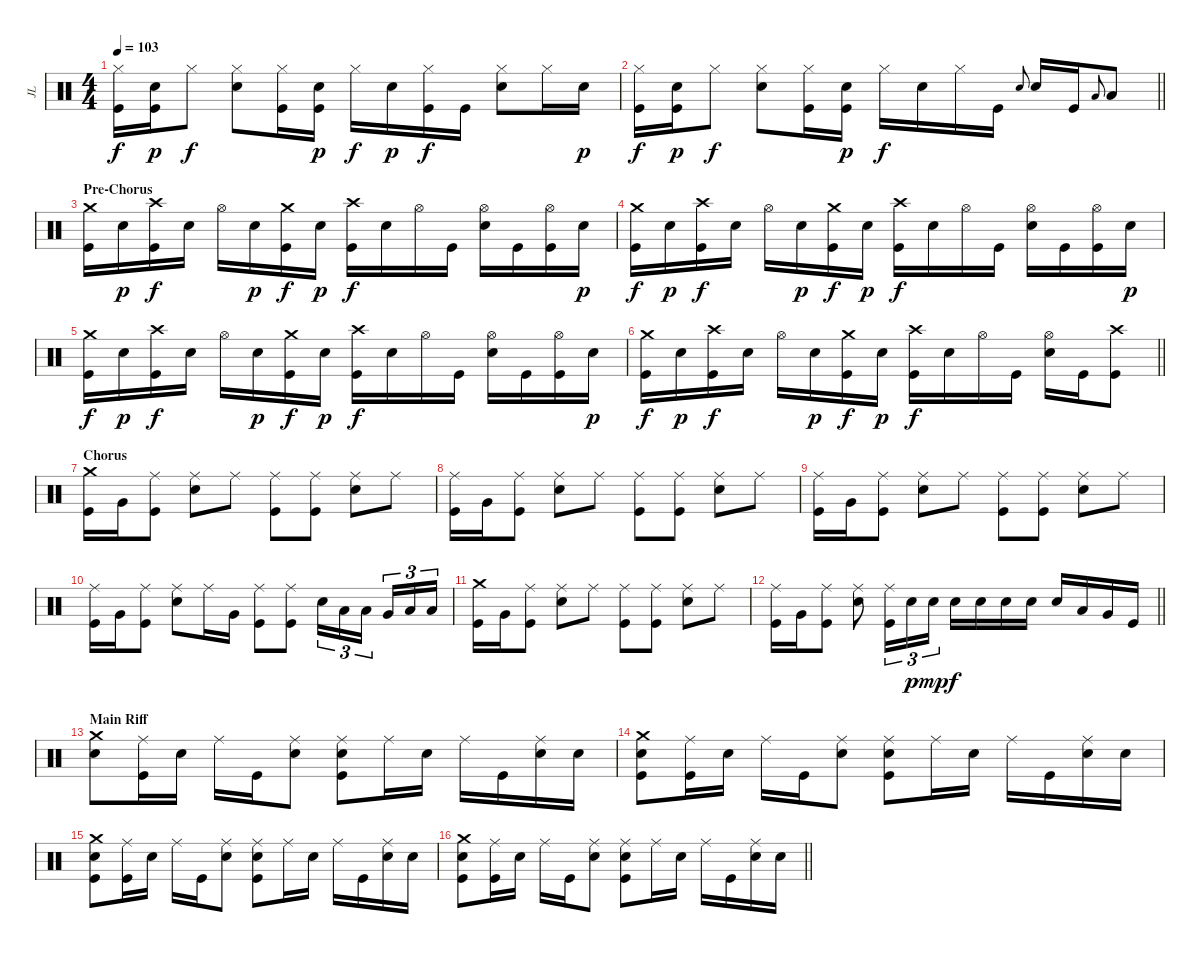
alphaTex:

\track ("JL" "JL") {instrument percussion}
\staff {score}
\articulation defaults
\ts (4 4)
\tempo 103
\clef neutral
\ks c
("Hi-Hat (closed)" "Kick (hit)").16{dy f} ("Electric Snare (hit)" "Kick (hit)").16{dy p} "Hi-Hat (closed)".8{dy f} ("Hi-Hat (closed)" "Electric Snare (hit)").8 ("Hi-Hat (closed)" "Kick (hit)").16 ("Electric Snare (hit)" "Kick (hit)").16{dy p} "Hi-Hat (closed)".16{dy f} "Electric Snare (hit)".16{dy p} ("Hi-Hat (closed)" "Kick (hit)").16{dy f} "Kick (hit)".16 ("Hi-Hat (closed)" "Electric Snare (hit)").8 "Hi-Hat (closed)".16 "Electric Snare (hit)".16{dy p} |
\barLineRight lightlight
("Hi-Hat (closed)" "Kick (hit)").16{dy f} ("Electric Snare (hit)" "Kick (hit)").16{dy p} "Hi-Hat (closed)".8{dy f} ("Hi-Hat (closed)" "Electric Snare (hit)").8 ("Hi-Hat (closed)" "Kick (hit)").16 ("Electric Snare (hit)" "Kick (hit)").16{dy p} "Hi-Hat (closed)".16{dy f} "Electric Snare (hit)".16 "Hi-Hat (closed)".16 "Kick (hit)".16 "Electric Snare (hit)".8{gr onbeat} "Electric Snare (hit)".16 "Kick (hit)".16 "Low Tom (hit)".8{gr onbeat} "Low Tom (hit)".8 |
\section ("" "Pre-Chorus")
("Crash medium (hit)" "Kick (hit)").16 "Electric Snare (hit)".16{dy p} ("Crash high (hit)" "Kick (hit)").16{dy f} "Electric Snare (hit)".16 "Hi-Hat (open)".16 "Electric Snare (hit)".16{dy p} ("Crash medium (hit)" "Kick (hit)").16{dy f} "Electric Snare (hit)".16{dy p} ("Crash high (hit)" "Kick (hit)").16{dy f} "Electric Snare (hit)".16 "Hi-Hat (open)".16 "Kick (hit)".16 ("Hi-Hat (open)" "Electric Snare (hit)").16 "Kick (hit)".16 ("Hi-Hat (open)" "Kick (hit)").16 "Electric Snare (hit)".16{dy p} |
("Crash medium (hit)" "Kick (hit)").16{dy f} "Electric Snare (hit)".16{dy p} ("Crash high (hit)" "Kick (hit)").16{dy f} "Electric Snare (hit)".16 "Hi-Hat (open)".16 "Electric Snare (hit)".16{dy p} ("Crash medium (hit)" "Kick (hit)").16{dy f} "Electric Snare (hit)".16{dy p} ("Crash high (hit)" "Kick (hit)").16{dy f} "Electric Snare (hit)".16 "Hi-Hat (open)".16 "Kick (hit)".16 ("Hi-Hat (open)" "Electric Snare (hit)").16 "Kick (hit)".16 ("Hi-Hat (open)" "Kick (hit)").16 "Electric Snare (hit)".16{dy p} |
("Crash medium (hit)" "Kick (hit)").16{dy f} "Electric Snare (hit)".16{dy p} ("Crash high (hit)" "Kick (hit)").16{dy f} "Electric Snare (hit)".16 "Hi-Hat (open)".16 "Electric Snare (hit)".16{dy p} ("Crash medium (hit)" "Kick (hit)").16{dy f} "Electric Snare (hit)".16{dy p} ("Crash high (hit)" "Kick (hit)").16{dy f} "Electric Snare (hit)".16 "Hi-Hat (open)".16 "Kick (hit)".16 ("Hi-Hat (open)" "Electric Snare (hit)").16 "Kick (hit)".16 ("Hi-Hat (open)" "Kick (hit)").16 "Electric Snare (hit)".16{dy p} |
\barLineRight lightlight
("Crash medium (hit)" "Kick (hit)").16{dy f} "Electric Snare (hit)".16{dy p} ("Crash high (hit)" "Kick (hit)").16{dy f} "Electric Snare (hit)".16 "Hi-Hat (open)".16 "Electric Snare (hit)".16{dy p} ("Crash medium (hit)" "Kick (hit)").16{dy f} "Electric Snare (hit)".16{dy p} ("Crash high (hit)" "Kick (hit)").16{dy f} "Electric Snare (hit)".16 "Hi-Hat (open)".16 "Kick (hit)".16 ("Hi-Hat (open)" "Electric Snare (hit)").16 "Kick (hit)".16 ("Crash high (hit)" "Kick (hit)").8 |
\section ("" "Chorus")
("Crash medium (hit)" "Kick (hit)").16 "Very Low Tom (hit)".16 ("Ride (middle)" "Kick (hit)").8 ("Ride (middle)" "Electric Snare (hit)").8 "Ride (middle)".8 ("Ride (middle)" "Kick (hit)").8 ("Ride (middle)" "Kick (hit)").8 ("Ride (middle)" "Electric Snare (hit)").8 "Ride (middle)".8 |
("Ride (middle)" "Kick (hit)").16 "Very Low Tom (hit)".16 ("Ride (middle)" "Kick (hit)").8 ("Ride (middle)" "Electric Snare (hit)").8 "Ride (middle)".8 ("Ride (middle)" "Kick (hit)").8 ("Ride (middle)" "Kick (hit)").8 ("Ride (middle)" "Electric Snare (hit)").8 "Ride (middle)".8 |
("Ride (middle)" "Kick (hit)").16 "Very Low Tom (hit)".16 ("Ride (middle)" "Kick (hit)").8 ("Ride (middle)" "Electric Snare (hit)").8 "Ride (middle)".8 ("Ride (middle)" "Kick (hit)").8 ("Ride (middle)" "Kick (hit)").8 ("Ride (middle)" "Electric Snare (hit)").8 "Ride (middle)".8 |
("Ride (middle)" "Kick (hit)").16 "Very Low Tom (hit)".16 ("Ride (middle)" "Kick (hit)").8 ("Ride (middle)" "Electric Snare (hit)").8 "Ride (middle)".16 "Very Low Tom (hit)".16 ("Ride (middle)" "Kick (hit)").8 ("Ride (middle)" "Kick (hit)").8 "Electric Snare (hit)".16{tu (3 2)} "Low Tom (hit)".16{tu (3 2)} "Low Tom (hit)".16{tu (3 2) beam splitsecondary} "Very Low Tom (hit)".16{tu (3 2)} "Low Floor Tom (hit)".16{tu (3 2)} "Low Floor Tom (hit)".16{tu (3 2)} |
("Crash medium (hit)" "Kick (hit)").16 "Very Low Tom (hit)".16 ("Ride (middle)" "Kick (hit)").8 ("Ride (middle)" "Electric Snare (hit)").8 "Ride (middle)".8 ("Ride (middle)" "Kick (hit)").8 ("Ride (middle)" "Kick (hit)").8 ("Ride (middle)" "Electric Snare (hit)").8 "Ride (middle)".8 |
\barLineRight lightlight
("Ride (middle)" "Kick (hit)").16 "Very Low Tom (hit)".16 ("Ride (middle)" "Kick (hit)").8 ("Ride (middle)" "Electric Snare (hit)").8 ("Ride (middle)" "Kick (hit)").16{tu (3 2)} "Electric Snare (hit)".16{tu (3 2) dy p} "Electric Snare (hit)".16{tu (3 2) dy mp} "Electric Snare (hit)".16{dy f} "Electric Snare (hit)".16 "Electric Snare (hit)".16 "Electric Snare (hit)".16 "Electric Snare (hit)".16 "Low Tom (hit)".16 "Very Low Tom (hit)".16 "Kick (hit)".16 |
\section ("" "Main Riff")
("Crash medium (hit)" "Electric Snare (hit)").8 ("Ride (middle)" "Kick (hit)").16 "Electric Snare (hit)".16 "Ride (middle)".16 "Kick (hit)".16 ("Ride (middle)" "Electric Snare (hit)").8 ("Ride (middle)" "Electric Snare (hit)" "Kick (hit)").8 "Ride (middle)".16 "Electric Snare (hit)".16 "Ride (middle)".16 "Kick (hit)".16 ("Ride (middle)" "Electric Snare (hit)").16 "Electric Snare (hit)".16 |
("Crash medium (hit)" "Electric Snare (hit)" "Kick (hit)").8 ("Ride (middle)" "Kick (hit)").16 "Electric Snare (hit)".16 "Ride (middle)".16 "Kick (hit)".16 ("Ride (middle)" "Electric Snare (hit)").8 ("Ride (middle)" "Electric Snare (hit)" "Kick (hit)").8 "Ride (middle)".16 "Electric Snare (hit)".16 "Ride (middle)".16 "Kick (hit)".16 ("Ride (middle)" "Electric Snare (hit)").16 "Electric Snare (hit)".16 |
("Crash medium (hit)" "Electric Snare (hit)" "Kick (hit)").8 ("Ride (middle)" "Kick (hit)").16 "Electric Snare (hit)".16 "Ride (middle)".16 "Kick (hit)".16 ("Ride (middle)" "Electric Snare (hit)").8 ("Ride (middle)" "Electric Snare (hit)" "Kick (hit)").8 "Ride (middle)".16 "Electric Snare (hit)".16 "Ride (middle)".16 "Kick (hit)".16 ("Ride (middle)" "Electric Snare (hit)").16 "Electric Snare (hit)".16 |
\barLineRight lightlight
("Crash medium (hit)" "Electric Snare (hit)" "Kick (hit)").8 ("Ride (middle)" "Kick (hit)").16 "Electric Snare (hit)".16 "Ride (middle)".16 "Kick (hit)".16 ("Ride (middle)" "Electric Snare (hit)").8 ("Ride (middle)" "Electric Snare (hit)" "Kick (hit)").8 "Ride (middle)".16 "Electric Snare (hit)".16 "Ride (middle)".16 "Kick (hit)".16 ("Ride (middle)" "Electric Snare (hit)").16 "Electric Snare (hit)".16
